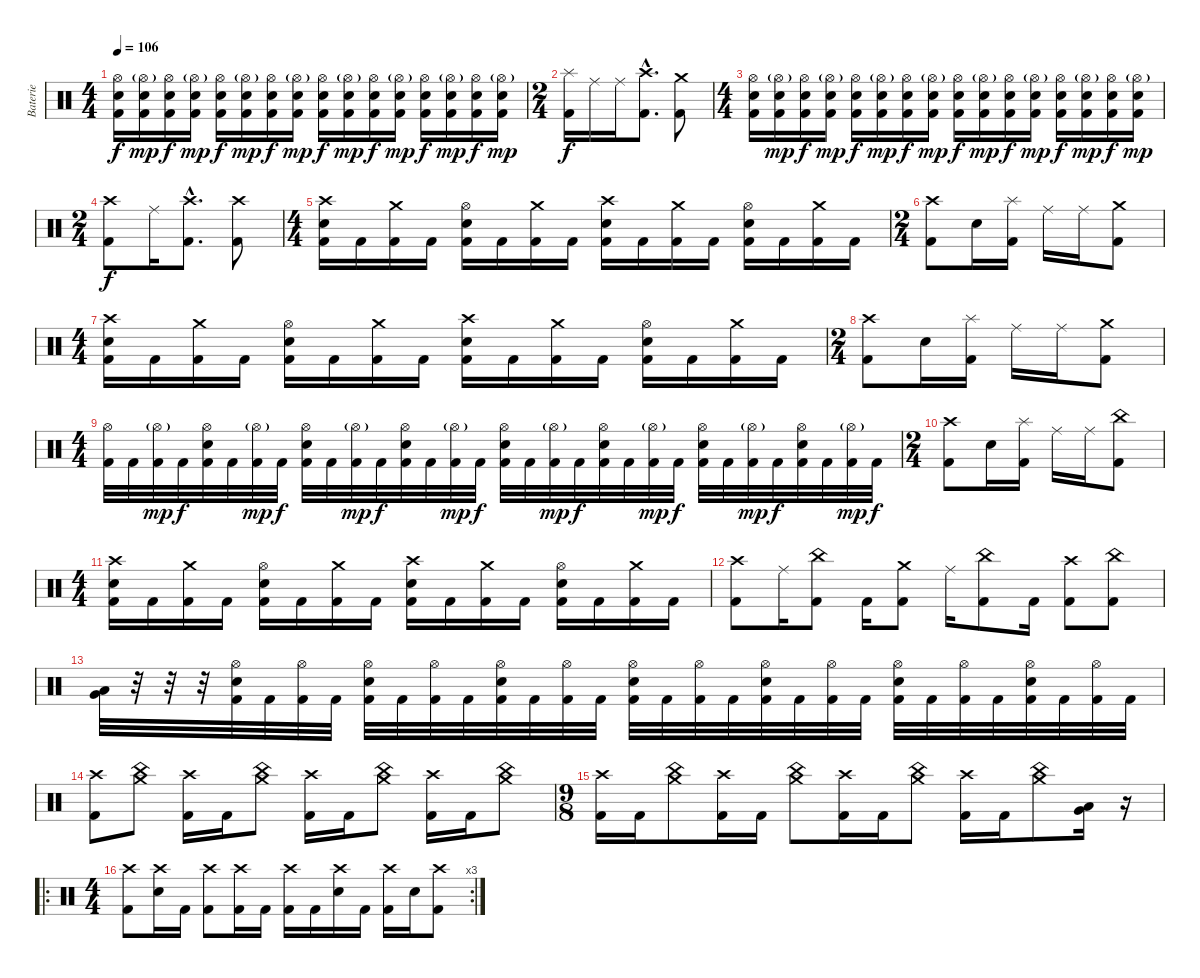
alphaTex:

\track ("Baterie" "Baterie") {instrument percussion}
\staff {score}
\articulation defaults
\ts (4 4)
\tempo 106
\clef neutral
\ks c
("Hi-Hat (open)" "Kick (hit) 2" "Electric Snare (hit)").16{dy f} ("Hi-Hat (open)"{g} "Kick (hit) 2" "Electric Snare (hit)").16{dy mp} ("Hi-Hat (open)" "Kick (hit) 2" "Electric Snare (hit)").16{dy f} ("Hi-Hat (open)"{g} "Kick (hit) 2" "Electric Snare (hit)").16{dy mp} ("Hi-Hat (open)" "Kick (hit) 2" "Electric Snare (hit)").16{dy f} ("Hi-Hat (open)"{g} "Kick (hit) 2" "Electric Snare (hit)").16{dy mp} ("Hi-Hat (open)" "Kick (hit) 2" "Electric Snare (hit)").16{dy f} ("Hi-Hat (open)"{g} "Kick (hit) 2" "Electric Snare (hit)").16{dy mp} ("Hi-Hat (open)" "Kick (hit) 2" "Electric Snare (hit)").16{dy f} ("Hi-Hat (open)"{g} "Kick (hit) 2" "Electric Snare (hit)").16{dy mp} ("Hi-Hat (open)" "Kick (hit) 2" "Electric Snare (hit)").16{dy f} ("Hi-Hat (open)"{g} "Kick (hit) 2" "Electric Snare (hit)").16{dy mp} ("Hi-Hat (open)" "Kick (hit) 2" "Electric Snare (hit)").16{dy f} ("Hi-Hat (open)"{g} "Kick (hit) 2" "Electric Snare (hit)").16{dy mp} ("Hi-Hat (open)" "Kick (hit) 2" "Electric Snare (hit)").16{dy f} ("Hi-Hat (open)"{g} "Kick (hit) 2" "Electric Snare (hit)").16{dy mp} |
\ts (2 4)
("Splash (hit)" "Kick (hit) 2").16{dy f} "Ride (middle)".16 "Ride (middle)".16 ("Crash high (hit)"{hac} "Kick (hit) 2"{hac}).8{d} ("Crash medium (hit)" "Kick (hit) 2").8 |
\ts (4 4)
("Hi-Hat (open)" "Kick (hit) 2" "Electric Snare (hit)").16 ("Hi-Hat (open)"{g} "Kick (hit) 2" "Electric Snare (hit)").16{dy mp} ("Hi-Hat (open)" "Kick (hit) 2" "Electric Snare (hit)").16{dy f} ("Hi-Hat (open)"{g} "Kick (hit) 2" "Electric Snare (hit)").16{dy mp} ("Hi-Hat (open)" "Kick (hit) 2" "Electric Snare (hit)").16{dy f} ("Hi-Hat (open)"{g} "Kick (hit) 2" "Electric Snare (hit)").16{dy mp} ("Hi-Hat (open)" "Kick (hit) 2" "Electric Snare (hit)").16{dy f} ("Hi-Hat (open)"{g} "Kick (hit) 2" "Electric Snare (hit)").16{dy mp} ("Hi-Hat (open)" "Kick (hit) 2" "Electric Snare (hit)").16{dy f} ("Hi-Hat (open)"{g} "Kick (hit) 2" "Electric Snare (hit)").16{dy mp} ("Hi-Hat (open)" "Kick (hit) 2" "Electric Snare (hit)").16{dy f} ("Hi-Hat (open)"{g} "Kick (hit) 2" "Electric Snare (hit)").16{dy mp} ("Hi-Hat (open)" "Kick (hit) 2" "Electric Snare (hit)").16{dy f} ("Hi-Hat (open)"{g} "Kick (hit) 2" "Electric Snare (hit)").16{dy mp} ("Hi-Hat (open)" "Kick (hit) 2" "Electric Snare (hit)").16{dy f} ("Hi-Hat (open)"{g} "Kick (hit) 2" "Electric Snare (hit)").16{dy mp} |
\ts (2 4)
("Crash high (hit)" "Kick (hit) 2").8{dy f} "Ride (middle)".16 ("Crash high (hit)"{hac} "Kick (hit) 2"{hac}).8{d} ("Crash high (hit)" "Kick (hit) 2").8 |
\ts (4 4)
("Crash high (hit)" "Kick (hit) 2" "Electric Snare (hit)").16 "Kick (hit) 2".16 ("Crash medium (hit)" "Kick (hit) 2").16 "Kick (hit) 2".16 ("Hi-Hat (open)" "Kick (hit) 2" "Electric Snare (hit)").16 "Kick (hit) 2".16 ("Crash medium (hit)" "Kick (hit) 2").16 "Kick (hit) 2".16 ("Crash high (hit)" "Kick (hit) 2" "Electric Snare (hit)").16 "Kick (hit) 2".16 ("Crash medium (hit)" "Kick (hit) 2").16 "Kick (hit) 2".16 ("Hi-Hat (open)" "Kick (hit) 2" "Electric Snare (hit)").16 "Kick (hit) 2".16 ("Crash medium (hit)" "Kick (hit) 2").16 "Kick (hit) 2".16 |
\ts (2 4)
("Crash high (hit)" "Kick (hit) 2").8 "Electric Snare (hit)".16 ("Splash (hit)" "Kick (hit) 2").16 "Ride (middle)".16 "Ride (middle)".16 ("Crash medium (hit)" "Kick (hit) 2").8 |
\ts (4 4)
("Crash high (hit)" "Kick (hit) 2" "Electric Snare (hit)").16 "Kick (hit) 2".16 ("Crash medium (hit)" "Kick (hit) 2").16 "Kick (hit) 2".16 ("Hi-Hat (open)" "Kick (hit) 2" "Electric Snare (hit)").16 "Kick (hit) 2".16 ("Crash medium (hit)" "Kick (hit) 2").16 "Kick (hit) 2".16 ("Crash high (hit)" "Kick (hit) 2" "Electric Snare (hit)").16 "Kick (hit) 2".16 ("Crash medium (hit)" "Kick (hit) 2").16 "Kick (hit) 2".16 ("Hi-Hat (open)" "Kick (hit) 2" "Electric Snare (hit)").16 "Kick (hit) 2".16 ("Crash medium (hit)" "Kick (hit) 2").16 "Kick (hit) 2".16 |
\ts (2 4)
("Crash high (hit)" "Kick (hit) 2").8 "Electric Snare (hit)".16 ("Splash (hit)" "Kick (hit) 2").16 "Ride (middle)".16 "Ride (middle)".16 ("Crash medium (hit)" "Kick (hit) 2").8 |
\ts (4 4)
("Hi-Hat (open)" "Kick (hit) 2").32 "Kick (hit) 2".32 ("Hi-Hat (open)"{g} "Kick (hit) 2").32{dy mp} "Kick (hit) 2".32{dy f} ("Hi-Hat (open)" "Electric Snare (hit)" "Kick (hit) 2").32 "Kick (hit) 2".32 ("Hi-Hat (open)"{g} "Kick (hit) 2").32{dy mp} "Kick (hit) 2".32{dy f} ("Hi-Hat (open)" "Electric Snare (hit)" "Kick (hit) 2").32 "Kick (hit) 2".32 ("Hi-Hat (open)"{g} "Kick (hit) 2").32{dy mp} "Kick (hit) 2".32{dy f} ("Hi-Hat (open)" "Electric Snare (hit)" "Kick (hit) 2").32 "Kick (hit) 2".32 ("Hi-Hat (open)"{g} "Kick (hit) 2").32{dy mp} "Kick (hit) 2".32{dy f} ("Hi-Hat (open)" "Electric Snare (hit)" "Kick (hit) 2").32 "Kick (hit) 2".32 ("Hi-Hat (open)"{g} "Kick (hit) 2").32{dy mp} "Kick (hit) 2".32{dy f} ("Hi-Hat (open)" "Electric Snare (hit)" "Kick (hit) 2").32 "Kick (hit) 2".32 ("Hi-Hat (open)"{g} "Kick (hit) 2").32{dy mp} "Kick (hit) 2".32{dy f} ("Hi-Hat (open)" "Electric Snare (hit)" "Kick (hit) 2").32 "Kick (hit) 2".32 ("Hi-Hat (open)"{g} "Kick (hit) 2").32{dy mp} "Kick (hit) 2".32{dy f} ("Hi-Hat (open)" "Electric Snare (hit)" "Kick (hit) 2").32 "Kick (hit) 2".32 ("Hi-Hat (open)"{g} "Kick (hit) 2").32{dy mp} "Kick (hit) 2".32{dy f} |
\ts (2 4)
("Crash high (hit)" "Kick (hit) 2").8 "Electric Snare (hit)".16 ("Splash (hit)" "Kick (hit) 2").16 "Ride (middle)".16 "Ride (middle)".16 ("China (hit)" "Kick (hit) 2").8 |
\ts (4 4)
("Crash high (hit)" "Kick (hit) 2" "Electric Snare (hit)").16 "Kick (hit) 2".16 ("Crash medium (hit)" "Kick (hit) 2").16 "Kick (hit) 2".16 ("Hi-Hat (open)" "Kick (hit) 2" "Electric Snare (hit)").16 "Kick (hit) 2".16 ("Crash medium (hit)" "Kick (hit) 2").16 "Kick (hit) 2".16 ("Crash high (hit)" "Kick (hit) 2" "Electric Snare (hit)").16 "Kick (hit) 2".16 ("Crash medium (hit)" "Kick (hit) 2").16 "Kick (hit) 2".16 ("Hi-Hat (open)" "Kick (hit) 2" "Electric Snare (hit)").16 "Kick (hit) 2".16 ("Crash medium (hit)" "Kick (hit) 2").16 "Kick (hit) 2".16 |
("Crash high (hit)" "Kick (hit) 2").8 "Ride (middle)".16 ("China (hit)" "Kick (hit) 2").8 "Kick (hit) 2".16 ("Crash medium (hit)" "Kick (hit) 2").8 "Ride (middle)".16 ("China (hit)" "Kick (hit) 2").8 "Kick (hit) 2".16 ("Crash high (hit)" "Kick (hit) 2").8 ("China (hit)" "Kick (hit) 2").8 |
("Very Low Tom (hit)" "Low Tom (hit)").32 r.32 r.32 r.32 ("Hi-Hat (open)" "Electric Snare (hit)" "Kick (hit) 2").32 "Kick (hit) 2".32 ("Hi-Hat (open)" "Kick (hit) 2").32 "Kick (hit) 2".32 ("Hi-Hat (open)" "Electric Snare (hit)" "Kick (hit) 2").32 "Kick (hit) 2".32 ("Hi-Hat (open)" "Kick (hit) 2").32 "Kick (hit) 2".32 ("Hi-Hat (open)" "Electric Snare (hit)" "Kick (hit) 2").32 "Kick (hit) 2".32 ("Hi-Hat (open)" "Kick (hit) 2").32 "Kick (hit) 2".32 ("Hi-Hat (open)" "Electric Snare (hit)" "Kick (hit) 2").32 "Kick (hit) 2".32 ("Hi-Hat (open)" "Kick (hit) 2").32 "Kick (hit) 2".32 ("Hi-Hat (open)" "Electric Snare (hit)" "Kick (hit) 2").32 "Kick (hit) 2".32 ("Hi-Hat (open)" "Kick (hit) 2").32 "Kick (hit) 2".32 ("Hi-Hat (open)" "Electric Snare (hit)" "Kick (hit) 2").32 "Kick (hit) 2".32 ("Hi-Hat (open)" "Kick (hit) 2").32 "Kick (hit) 2".32 ("Hi-Hat (open)" "Electric Snare (hit)" "Kick (hit) 2").32 "Kick (hit) 2".32 ("Hi-Hat (open)" "Kick (hit) 2").32 "Kick (hit) 2".32 |
("Crash high (hit)" "Kick (hit) 2").8 ("China (hit)" "Crash medium (hit)").8 ("Crash high (hit)" "Kick (hit) 2").16 "Kick (hit) 2".16 ("China (hit)" "Crash medium (hit)").8 ("Crash high (hit)" "Kick (hit) 2").16 "Kick (hit) 2".16 ("China (hit)" "Crash medium (hit)").8 ("Crash high (hit)" "Kick (hit) 2").16 "Kick (hit) 2".16 ("China (hit)" "Crash medium (hit)").8 |
\ts (9 8)
("Crash high (hit)" "Kick (hit) 2").16 "Kick (hit) 2".16 ("China (hit)" "Crash medium (hit)").8 ("Crash high (hit)" "Kick (hit) 2").16 "Kick (hit) 2".16 ("China (hit)" "Crash medium (hit)").8 ("Crash high (hit)" "Kick (hit) 2").16 "Kick (hit) 2".16 ("China (hit)" "Crash medium (hit)").8 ("Crash high (hit)" "Kick (hit) 2").16 "Kick (hit) 2".16 ("China (hit)" "Crash medium (hit)").8 ("Very Low Tom (hit)" "Low Tom (hit)").16 r.16 |
\ro
\rc 3
\ts (4 4)
("Crash high (hit)" "Kick (hit) 2").8 ("Crash high (hit)" "Electric Snare (hit)").16 "Kick (hit) 2".16 ("Crash high (hit)" "Kick (hit) 2").8 ("Crash high (hit)" "Kick (hit) 2").16 "Kick (hit) 2".16 ("Crash high (hit)" "Kick (hit) 2").16 "Kick (hit) 2".16 ("Crash high (hit)" "Electric Snare (hit)").16 "Kick (hit) 2".16 ("Crash high (hit)" "Kick (hit) 2").16 "Electric Snare (hit)".16 ("Crash high (hit)" "Kick (hit) 2").8
